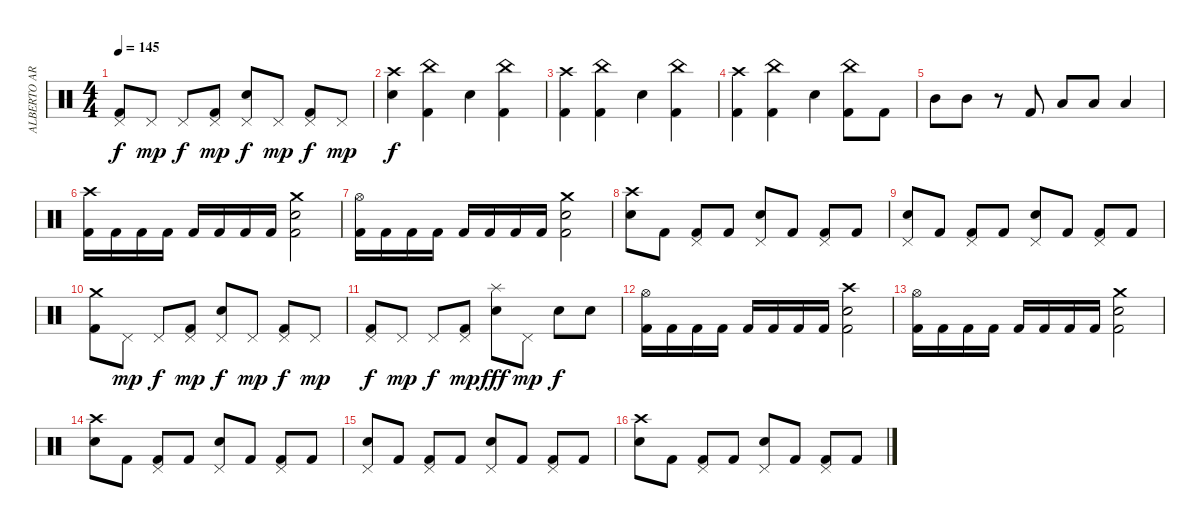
\track ("ALBERTO ARDINES" "ALBERTO AR") {instrument percussion}
\staff {score}
\articulation defaults
\ts (4 4)
\tempo 145
\clef neutral
\ks c
("Pedal Hi-Hat (hit)" "Kick (hit) 2").8{dy f} "Pedal Hi-Hat (hit)".8{dy mp} "Pedal Hi-Hat (hit)".8{dy f} ("Pedal Hi-Hat (hit)" "Kick (hit) 2").8{dy mp} ("Pedal Hi-Hat (hit)" "Electric Snare (hit)").8{dy f} "Pedal Hi-Hat (hit)".8{dy mp} ("Pedal Hi-Hat (hit)" "Kick (hit) 2").8{dy f} "Pedal Hi-Hat (hit)".8{dy mp} |
("Crash high (hit)" "Electric Snare (hit)").4{dy f} ("China (hit)" "Kick (hit) 2").4 "Electric Snare (hit)".4 ("China (hit)" "Kick (hit) 2").4 |
("Crash high (hit)" "Kick (hit) 2").4 ("China (hit)" "Kick (hit) 2").4 "Electric Snare (hit)".4 ("China (hit)" "Kick (hit) 2").4 |
("Crash high (hit)" "Kick (hit) 2").4 ("China (hit)" "Kick (hit) 2").4 "Electric Snare (hit)".4 ("China (hit)" "Kick (hit) 2").8 "Kick (hit) 2".8 |
"Mid Tom (hit)".8 "Mid Tom (hit)".8 r.8 "Kick (hit) 2".8 "Low Tom (hit)".8 "Low Tom (hit)".8 "Low Tom (hit)".4 |
("Crash high (hit)" "Kick (hit) 2").16 "Kick (hit) 2".16 "Kick (hit) 2".16 "Kick (hit) 2".16 "Kick (hit) 2".16 "Kick (hit) 2".16 "Kick (hit) 2".16 "Kick (hit) 2".16 ("Crash medium (hit)" "Electric Snare (hit)" "Kick (hit) 2").2 |
("Hi-Hat (open)" "Kick (hit) 2").16 "Kick (hit) 2".16 "Kick (hit) 2".16 "Kick (hit) 2".16 "Kick (hit) 2".16 "Kick (hit) 2".16 "Kick (hit) 2".16 "Kick (hit) 2".16 ("Crash medium (hit)" "Electric Snare (hit)" "Kick (hit) 2").2 |
("Crash high (hit)" "Electric Snare (hit)").8 "Kick (hit) 2".8 ("Pedal Hi-Hat (hit)" "Kick (hit) 2").8 "Kick (hit) 2".8 ("Pedal Hi-Hat (hit)" "Electric Snare (hit)").8 "Kick (hit) 2".8 ("Pedal Hi-Hat (hit)" "Kick (hit) 2").8 "Kick (hit) 2".8 |
("Pedal Hi-Hat (hit)" "Electric Snare (hit)").8 "Kick (hit) 2".8 ("Pedal Hi-Hat (hit)" "Kick (hit) 2").8 "Kick (hit) 2".8 ("Pedal Hi-Hat (hit)" "Electric Snare (hit)").8 "Kick (hit) 2".8 ("Pedal Hi-Hat (hit)" "Kick (hit) 2").8 "Kick (hit) 2".8 |
("Crash medium (hit)" "Kick (hit) 2").8 "Pedal Hi-Hat (hit)".8{dy mp} "Pedal Hi-Hat (hit)".8{dy f} ("Pedal Hi-Hat (hit)" "Kick (hit) 2").8{dy mp} ("Pedal Hi-Hat (hit)" "Electric Snare (hit)").8{dy f} "Pedal Hi-Hat (hit)".8{dy mp} ("Pedal Hi-Hat (hit)" "Kick (hit) 2").8{dy f} "Pedal Hi-Hat (hit)".8{dy mp} |
("Pedal Hi-Hat (hit)" "Kick (hit) 2").8{dy f} "Pedal Hi-Hat (hit)".8{dy mp} "Pedal Hi-Hat (hit)".8{dy f} ("Pedal Hi-Hat (hit)" "Kick (hit) 2").8{dy mp} ("Splash (hit)" "Electric Snare (hit)").8{dy fff} "Pedal Hi-Hat (hit)".8{dy mp} "Electric Snare (hit)".8{dy f} "Electric Snare (hit)".8 |
("Hi-Hat (open)" "Kick (hit) 2").16 "Kick (hit) 2".16 "Kick (hit) 2".16 "Kick (hit) 2".16 "Kick (hit) 2".16 "Kick (hit) 2".16 "Kick (hit) 2".16 "Kick (hit) 2".16 ("Crash high (hit)" "Electric Snare (hit)" "Kick (hit) 2").2 |
("Hi-Hat (open)" "Kick (hit) 2").16 "Kick (hit) 2".16 "Kick (hit) 2".16 "Kick (hit) 2".16 "Kick (hit) 2".16 "Kick (hit) 2".16 "Kick (hit) 2".16 "Kick (hit) 2".16 ("Crash medium (hit)" "Electric Snare (hit)" "Kick (hit) 2").2 |
("Crash high (hit)" "Electric Snare (hit)").8 "Kick (hit) 2".8 ("Pedal Hi-Hat (hit)" "Kick (hit) 2").8 "Kick (hit) 2".8 ("Pedal Hi-Hat (hit)" "Electric Snare (hit)").8 "Kick (hit) 2".8 ("Pedal Hi-Hat (hit)" "Kick (hit) 2").8 "Kick (hit) 2".8 |
("Pedal Hi-Hat (hit)" "Electric Snare (hit)").8 "Kick (hit) 2".8 ("Pedal Hi-Hat (hit)" "Kick (hit) 2").8 "Kick (hit) 2".8 ("Pedal Hi-Hat (hit)" "Electric Snare (hit)").8 "Kick (hit) 2".8 ("Pedal Hi-Hat (hit)" "Kick (hit) 2").8 "Kick (hit) 2".8 |
("Crash high (hit)" "Electric Snare (hit)").8 "Kick (hit) 2".8 ("Pedal Hi-Hat (hit)" "Kick (hit) 2").8 "Kick (hit) 2".8 ("Pedal Hi-Hat (hit)" "Electric Snare (hit)").8 "Kick (hit) 2".8 ("Pedal Hi-Hat (hit)" "Kick (hit) 2").8 "Kick (hit) 2".8
